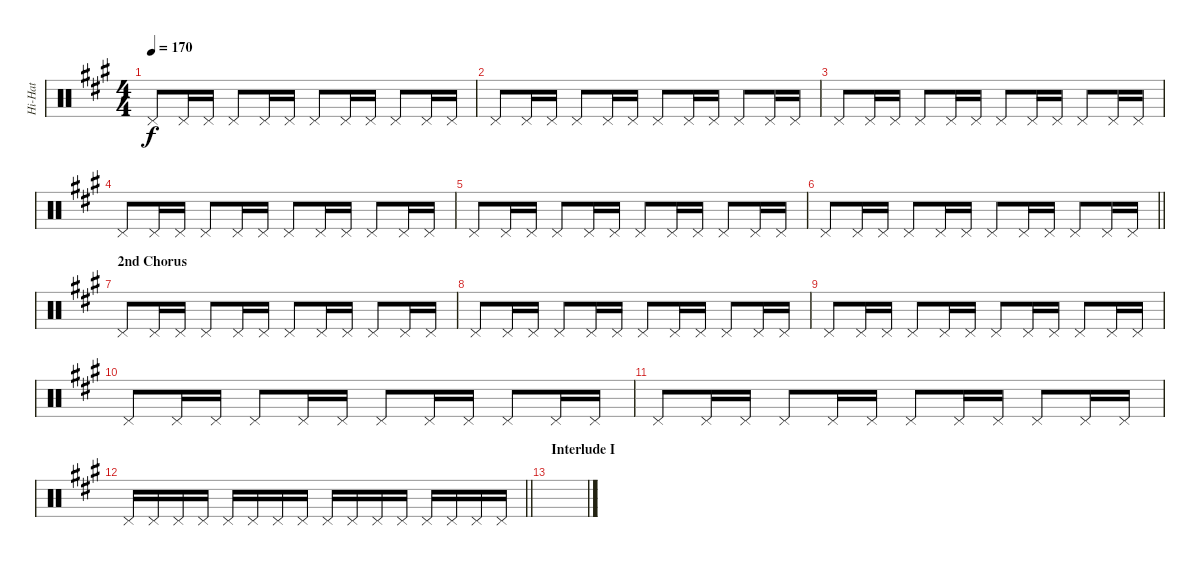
\track ("Hi-Hat" "Hi-Hat") {instrument percussion}
\staff {score}
\articulation defaults
\ts (4 4)
\tempo 170
\clef neutral
\ks a "Pedal Hi-Hat (hit)".8{dy f} "Pedal Hi-Hat (hit)".16 "Pedal Hi-Hat (hit)".16 "Pedal Hi-Hat (hit)".8 "Pedal Hi-Hat (hit)".16 "Pedal Hi-Hat (hit)".16 "Pedal Hi-Hat (hit)".8 "Pedal Hi-Hat (hit)".16 "Pedal Hi-Hat (hit)".16 "Pedal Hi-Hat (hit)".8 "Pedal Hi-Hat (hit)".16 "Pedal Hi-Hat (hit)".16
|
"Pedal Hi-Hat (hit)".8 "Pedal Hi-Hat (hit)".16 "Pedal Hi-Hat (hit)".16 "Pedal Hi-Hat (hit)".8 "Pedal Hi-Hat (hit)".16 "Pedal Hi-Hat (hit)".16 "Pedal Hi-Hat (hit)".8 "Pedal Hi-Hat (hit)".16 "Pedal Hi-Hat (hit)".16 "Pedal Hi-Hat (hit)".8 "Pedal Hi-Hat (hit)".16 "Pedal Hi-Hat (hit)".16 |
"Pedal Hi-Hat (hit)".8 "Pedal Hi-Hat (hit)".16 "Pedal Hi-Hat (hit)".16 "Pedal Hi-Hat (hit)".8 "Pedal Hi-Hat (hit)".16 "Pedal Hi-Hat (hit)".16 "Pedal Hi-Hat (hit)".8 "Pedal Hi-Hat (hit)".16 "Pedal Hi-Hat (hit)".16 "Pedal Hi-Hat (hit)".8 "Pedal Hi-Hat (hit)".16 "Pedal Hi-Hat (hit)".16 |
"Pedal Hi-Hat (hit)".8 "Pedal Hi-Hat (hit)".16 "Pedal Hi-Hat (hit)".16 "Pedal Hi-Hat (hit)".8 "Pedal Hi-Hat (hit)".16 "Pedal Hi-Hat (hit)".16 "Pedal Hi-Hat (hit)".8 "Pedal Hi-Hat (hit)".16 "Pedal Hi-Hat (hit)".16 "Pedal Hi-Hat (hit)".8 "Pedal Hi-Hat (hit)".16 "Pedal Hi-Hat (hit)".16 |
"Pedal Hi-Hat (hit)".8 "Pedal Hi-Hat (hit)".16 "Pedal Hi-Hat (hit)".16 "Pedal Hi-Hat (hit)".8 "Pedal Hi-Hat (hit)".16 "Pedal Hi-Hat (hit)".16 "Pedal Hi-Hat (hit)".8 "Pedal Hi-Hat (hit)".16 "Pedal Hi-Hat (hit)".16 "Pedal Hi-Hat (hit)".8 "Pedal Hi-Hat (hit)".16 "Pedal Hi-Hat (hit)".16 |
\barLineRight lightlight "Pedal Hi-Hat (hit)".8 "Pedal Hi-Hat (hit)".16 "Pedal Hi-Hat (hit)".16 "Pedal Hi-Hat (hit)".8 "Pedal Hi-Hat (hit)".16 "Pedal Hi-Hat (hit)".16 "Pedal Hi-Hat (hit)".8 "Pedal Hi-Hat (hit)".16 "Pedal Hi-Hat (hit)".16 "Pedal Hi-Hat (hit)".8 "Pedal Hi-Hat (hit)".16 "Pedal Hi-Hat (hit)".16
|
\section ("" "2nd Chorus")
"Pedal Hi-Hat (hit)".8 "Pedal Hi-Hat (hit)".16 "Pedal Hi-Hat (hit)".16 "Pedal Hi-Hat (hit)".8 "Pedal Hi-Hat (hit)".16 "Pedal Hi-Hat (hit)".16 "Pedal Hi-Hat (hit)".8 "Pedal Hi-Hat (hit)".16 "Pedal Hi-Hat (hit)".16 "Pedal Hi-Hat (hit)".8 "Pedal Hi-Hat (hit)".16 "Pedal Hi-Hat (hit)".16 |
"Pedal Hi-Hat (hit)".8 "Pedal Hi-Hat (hit)".16 "Pedal Hi-Hat (hit)".16 "Pedal Hi-Hat (hit)".8 "Pedal Hi-Hat (hit)".16 "Pedal Hi-Hat (hit)".16 "Pedal Hi-Hat (hit)".8 "Pedal Hi-Hat (hit)".16 "Pedal Hi-Hat (hit)".16 "Pedal Hi-Hat (hit)".8 "Pedal Hi-Hat (hit)".16 "Pedal Hi-Hat (hit)".16 |
"Pedal Hi-Hat (hit)".8 "Pedal Hi-Hat (hit)".16 "Pedal Hi-Hat (hit)".16 "Pedal Hi-Hat (hit)".8 "Pedal Hi-Hat (hit)".16 "Pedal Hi-Hat (hit)".16 "Pedal Hi-Hat (hit)".8 "Pedal Hi-Hat (hit)".16 "Pedal Hi-Hat (hit)".16 "Pedal Hi-Hat (hit)".8 "Pedal Hi-Hat (hit)".16 "Pedal Hi-Hat (hit)".16 |
"Pedal Hi-Hat (hit)".8 "Pedal Hi-Hat (hit)".16 "Pedal Hi-Hat (hit)".16 "Pedal Hi-Hat (hit)".8 "Pedal Hi-Hat (hit)".16 "Pedal Hi-Hat (hit)".16 "Pedal Hi-Hat (hit)".8 "Pedal Hi-Hat (hit)".16 "Pedal Hi-Hat (hit)".16 "Pedal Hi-Hat (hit)".8 "Pedal Hi-Hat (hit)".16 "Pedal Hi-Hat (hit)".16 |
"Pedal Hi-Hat (hit)".8 "Pedal Hi-Hat (hit)".16 "Pedal Hi-Hat (hit)".16 "Pedal Hi-Hat (hit)".8 "Pedal Hi-Hat (hit)".16 "Pedal Hi-Hat (hit)".16 "Pedal Hi-Hat (hit)".8 "Pedal Hi-Hat (hit)".16 "Pedal Hi-Hat (hit)".16 "Pedal Hi-Hat (hit)".8 "Pedal Hi-Hat (hit)".16 "Pedal Hi-Hat (hit)".16 |
\barLineRight lightlight "Pedal Hi-Hat (hit)".16 "Pedal Hi-Hat (hit)".16 "Pedal Hi-Hat (hit)".16 "Pedal Hi-Hat (hit)".16 "Pedal Hi-Hat (hit)".16 "Pedal Hi-Hat (hit)".16 "Pedal Hi-Hat (hit)".16 "Pedal Hi-Hat (hit)".16 "Pedal Hi-Hat (hit)".16 "Pedal Hi-Hat (hit)".16 "Pedal Hi-Hat (hit)".16 "Pedal Hi-Hat (hit)".16 "Pedal Hi-Hat (hit)".16 "Pedal Hi-Hat (hit)".16 "Pedal Hi-Hat (hit)".16 "Pedal Hi-Hat (hit)".16
|
\section ("" "Interlude I")
